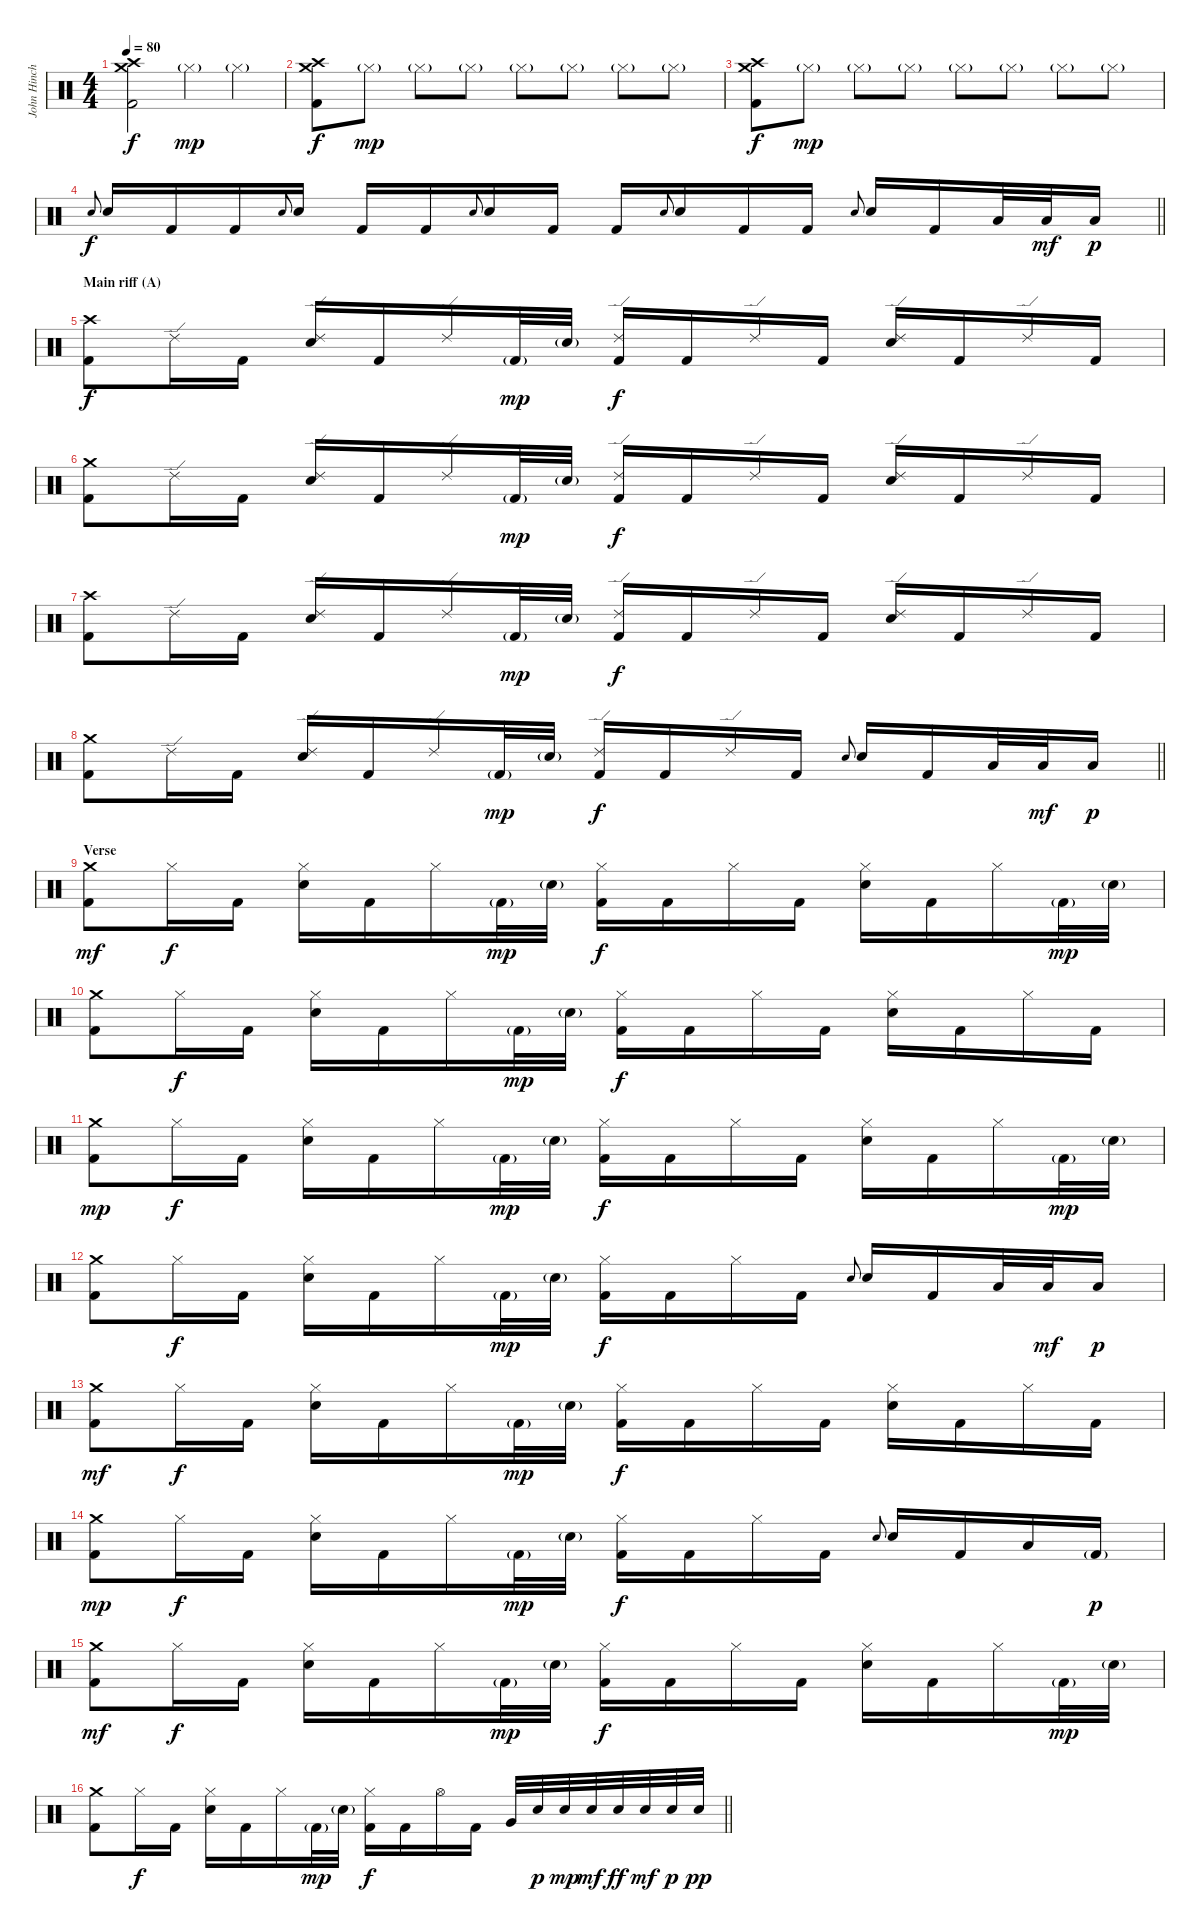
\track ("John Hinch" "John Hinch") {instrument percussion}
\staff {score}
\articulation defaults
\ts (4 4)
\tempo 80
\clef neutral
\ks c
("Crash medium (hit)" "Crash high (hit)" "Kick (hit) 2").2{dy f} "Hi-Hat (closed)"{g}.4{dy mp} "Hi-Hat (closed)"{g}.4 |
("Crash medium (hit)" "Crash high (hit)" "Kick (hit) 2").8{dy f} "Hi-Hat (closed)"{g}.8{dy mp} "Hi-Hat (closed)"{g}.8 "Hi-Hat (closed)"{g}.8 "Hi-Hat (closed)"{g}.8 "Hi-Hat (closed)"{g}.8 "Hi-Hat (closed)"{g}.8 "Hi-Hat (closed)"{g}.8 |
("Crash medium (hit)" "Crash high (hit)" "Kick (hit) 2").8{dy f} "Hi-Hat (closed)"{g}.8{dy mp} "Hi-Hat (closed)"{g}.8 "Hi-Hat (closed)"{g}.8 "Hi-Hat (closed)"{g}.8 "Hi-Hat (closed)"{g}.8 "Hi-Hat (closed)"{g}.8 "Hi-Hat (closed)"{g}.8 |
\barLineRight lightlight "Electric Snare (hit)".8{gr onbeat dy f} "Electric Snare (hit)".16 "Kick (hit) 2".16 "Kick (hit) 2".16 "Electric Snare (hit)".8{gr onbeat} "Electric Snare (hit)".16 "Kick (hit) 2".16 "Kick (hit) 2".16 "Electric Snare (hit)".8{gr onbeat} "Electric Snare (hit)".16 "Kick (hit) 2".16 "Kick (hit) 2".16 "Electric Snare (hit)".8{gr onbeat} "Electric Snare (hit)".16 "Kick (hit) 2".16 "Kick (hit) 2".16 "Electric Snare (hit)".8{gr onbeat} "Electric Snare (hit)".16 "Kick (hit) 2".16 "Low Tom (hit)".32 "Low Tom (hit)".32{dy mf} "Low Tom (hit)".16{dy p}
|
\section ("" "Main riff (A)")
("Crash high (hit)" "Kick (hit) 2").8{dy f} "Ride (edge) 2".16 "Kick (hit) 2".16 ("Ride (edge) 2" "Electric Snare (hit)").16 "Kick (hit) 2".16 "Ride (edge) 2".16 "Kick (hit) 2"{g}.32{dy mp} "Electric Snare (hit)"{g}.32 ("Ride (edge) 2" "Kick (hit) 2").16{dy f} "Kick (hit) 2".16 "Ride (edge) 2".16 "Kick (hit) 2".16 ("Ride (edge) 2" "Electric Snare (hit)").16 "Kick (hit) 2".16 "Ride (edge) 2".16 "Kick (hit) 2".16 |
("Crash medium (hit)" "Kick (hit) 2").8 "Ride (edge) 2".16 "Kick (hit) 2".16 ("Ride (edge) 2" "Electric Snare (hit)").16 "Kick (hit) 2".16 "Ride (edge) 2".16 "Kick (hit) 2"{g}.32{dy mp} "Electric Snare (hit)"{g}.32 ("Ride (edge) 2" "Kick (hit) 2").16{dy f} "Kick (hit) 2".16 "Ride (edge) 2".16 "Kick (hit) 2".16 ("Ride (edge) 2" "Electric Snare (hit)").16 "Kick (hit) 2".16 "Ride (edge) 2".16 "Kick (hit) 2".16 |
("Crash high (hit)" "Kick (hit) 2").8 "Ride (edge) 2".16 "Kick (hit) 2".16 ("Ride (edge) 2" "Electric Snare (hit)").16 "Kick (hit) 2".16 "Ride (edge) 2".16 "Kick (hit) 2"{g}.32{dy mp} "Electric Snare (hit)"{g}.32 ("Ride (edge) 2" "Kick (hit) 2").16{dy f} "Kick (hit) 2".16 "Ride (edge) 2".16 "Kick (hit) 2".16 ("Ride (edge) 2" "Electric Snare (hit)").16 "Kick (hit) 2".16 "Ride (edge) 2".16 "Kick (hit) 2".16 |
\barLineRight lightlight
("Crash medium (hit)" "Kick (hit) 2").8 "Ride (edge) 2".16 "Kick (hit) 2".16 ("Ride (edge) 2" "Electric Snare (hit)").16 "Kick (hit) 2".16 "Ride (edge) 2".16 "Kick (hit) 2"{g}.32{dy mp} "Electric Snare (hit)"{g}.32 ("Ride (edge) 2" "Kick (hit) 2").16{dy f} "Kick (hit) 2".16 "Ride (edge) 2".16 "Kick (hit) 2".16 "Electric Snare (hit)".8{gr onbeat} "Electric Snare (hit)".16 "Kick (hit) 2".16 "Low Tom (hit)".32 "Low Tom (hit)".32{dy mf} "Low Tom (hit)".16{dy p} |
\section ("" "Verse")
("Crash medium (hit)" "Kick (hit) 2").8{dy mf} "Hi-Hat (closed)".16{dy f} "Kick (hit) 2".16 ("Hi-Hat (closed)" "Electric Snare (hit)").16 "Kick (hit) 2".16 "Hi-Hat (closed)".16 "Kick (hit) 2"{g}.32{dy mp} "Electric Snare (hit)"{g}.32 ("Hi-Hat (closed)" "Kick (hit) 2").16{dy f} "Kick (hit) 2".16 "Hi-Hat (closed)".16 "Kick (hit) 2".16 ("Hi-Hat (closed)" "Electric Snare (hit)").16 "Kick (hit) 2".16 "Hi-Hat (closed)".16 "Kick (hit) 2"{g}.32{dy mp} "Electric Snare (hit)"{g}.32 |
("Crash medium (hit)" "Kick (hit) 2").8 "Hi-Hat (closed)".16{dy f} "Kick (hit) 2".16 ("Hi-Hat (closed)" "Electric Snare (hit)").16 "Kick (hit) 2".16 "Hi-Hat (closed)".16 "Kick (hit) 2"{g}.32{dy mp} "Electric Snare (hit)"{g}.32 ("Hi-Hat (closed)" "Kick (hit) 2").16{dy f} "Kick (hit) 2".16 "Hi-Hat (closed)".16 "Kick (hit) 2".16 ("Hi-Hat (closed)" "Electric Snare (hit)").16 "Kick (hit) 2".16 "Hi-Hat (closed)".16 "Kick (hit) 2".16 |
("Crash medium (hit)" "Kick (hit) 2").8{dy mp} "Hi-Hat (closed)".16{dy f} "Kick (hit) 2".16 ("Hi-Hat (closed)" "Electric Snare (hit)").16 "Kick (hit) 2".16 "Hi-Hat (closed)".16 "Kick (hit) 2"{g}.32{dy mp} "Electric Snare (hit)"{g}.32 ("Hi-Hat (closed)" "Kick (hit) 2").16{dy f} "Kick (hit) 2".16 "Hi-Hat (closed)".16 "Kick (hit) 2".16 ("Hi-Hat (closed)" "Electric Snare (hit)").16 "Kick (hit) 2".16 "Hi-Hat (closed)".16 "Kick (hit) 2"{g}.32{dy mp} "Electric Snare (hit)"{g}.32 |
("Crash medium (hit)" "Kick (hit) 2").8 "Hi-Hat (closed)".16{dy f} "Kick (hit) 2".16 ("Hi-Hat (closed)" "Electric Snare (hit)").16 "Kick (hit) 2".16 "Hi-Hat (closed)".16 "Kick (hit) 2"{g}.32{dy mp} "Electric Snare (hit)"{g}.32 ("Hi-Hat (closed)" "Kick (hit) 2").16{dy f} "Kick (hit) 2".16 "Hi-Hat (closed)".16 "Kick (hit) 2".16 "Electric Snare (hit)".8{gr onbeat} "Electric Snare (hit)".16 "Kick (hit) 2".16 "Low Tom (hit)".32 "Low Tom (hit)".32{dy mf} "Low Tom (hit)".16{dy p} |
("Crash medium (hit)" "Kick (hit) 2").8{dy mf} "Hi-Hat (closed)".16{dy f} "Kick (hit) 2".16 ("Hi-Hat (closed)" "Electric Snare (hit)").16 "Kick (hit) 2".16 "Hi-Hat (closed)".16 "Kick (hit) 2"{g}.32{dy mp} "Electric Snare (hit)"{g}.32 ("Hi-Hat (closed)" "Kick (hit) 2").16{dy f} "Kick (hit) 2".16 "Hi-Hat (closed)".16 "Kick (hit) 2".16 ("Hi-Hat (closed)" "Electric Snare (hit)").16 "Kick (hit) 2".16 "Hi-Hat (closed)".16 "Kick (hit) 2".16 |
("Crash medium (hit)" "Kick (hit) 2").8{dy mp} "Hi-Hat (closed)".16{dy f} "Kick (hit) 2".16 ("Hi-Hat (closed)" "Electric Snare (hit)").16 "Kick (hit) 2".16 "Hi-Hat (closed)".16 "Kick (hit) 2"{g}.32{dy mp} "Electric Snare (hit)"{g}.32 ("Hi-Hat (closed)" "Kick (hit) 2").16{dy f} "Kick (hit) 2".16 "Hi-Hat (closed)".16 "Kick (hit) 2".16 "Electric Snare (hit)".8{gr onbeat} "Electric Snare (hit)".16 "Kick (hit) 2".16 "Low Tom (hit)".16 "Kick (hit) 2"{g}.16{dy p} |
("Crash medium (hit)" "Kick (hit) 2").8{dy mf} "Hi-Hat (closed)".16{dy f} "Kick (hit) 2".16 ("Hi-Hat (closed)" "Electric Snare (hit)").16 "Kick (hit) 2".16 "Hi-Hat (closed)".16 "Kick (hit) 2"{g}.32{dy mp} "Electric Snare (hit)"{g}.32 ("Hi-Hat (closed)" "Kick (hit) 2").16{dy f} "Kick (hit) 2".16 "Hi-Hat (closed)".16 "Kick (hit) 2".16 ("Hi-Hat (closed)" "Electric Snare (hit)").16 "Kick (hit) 2".16 "Hi-Hat (closed)".16 "Kick (hit) 2"{g}.32{dy mp} "Electric Snare (hit)"{g}.32 |
\barLineRight lightlight
("Crash medium (hit)" "Kick (hit) 2").8 "Hi-Hat (closed)".16{dy f} "Kick (hit) 2".16 ("Hi-Hat (closed)" "Electric Snare (hit)").16 "Kick (hit) 2".16 "Hi-Hat (closed)".16 "Kick (hit) 2"{g}.32{dy mp} "Electric Snare (hit)"{g}.32 ("Hi-Hat (closed)" "Kick (hit) 2").16{dy f} "Kick (hit) 2".16 "Hi-Hat (open)".16 "Kick (hit) 2".16 "Very Low Tom (hit)".32 "Electric Snare (hit)".32{dy p} "Electric Snare (hit)".32{dy mp} "Electric Snare (hit)".32{dy mf} "Electric Snare (hit)".32{dy ff} "Electric Snare (hit)".32{dy mf} "Electric Snare (hit)".32{dy p} "Electric Snare (hit)".32{dy pp}
